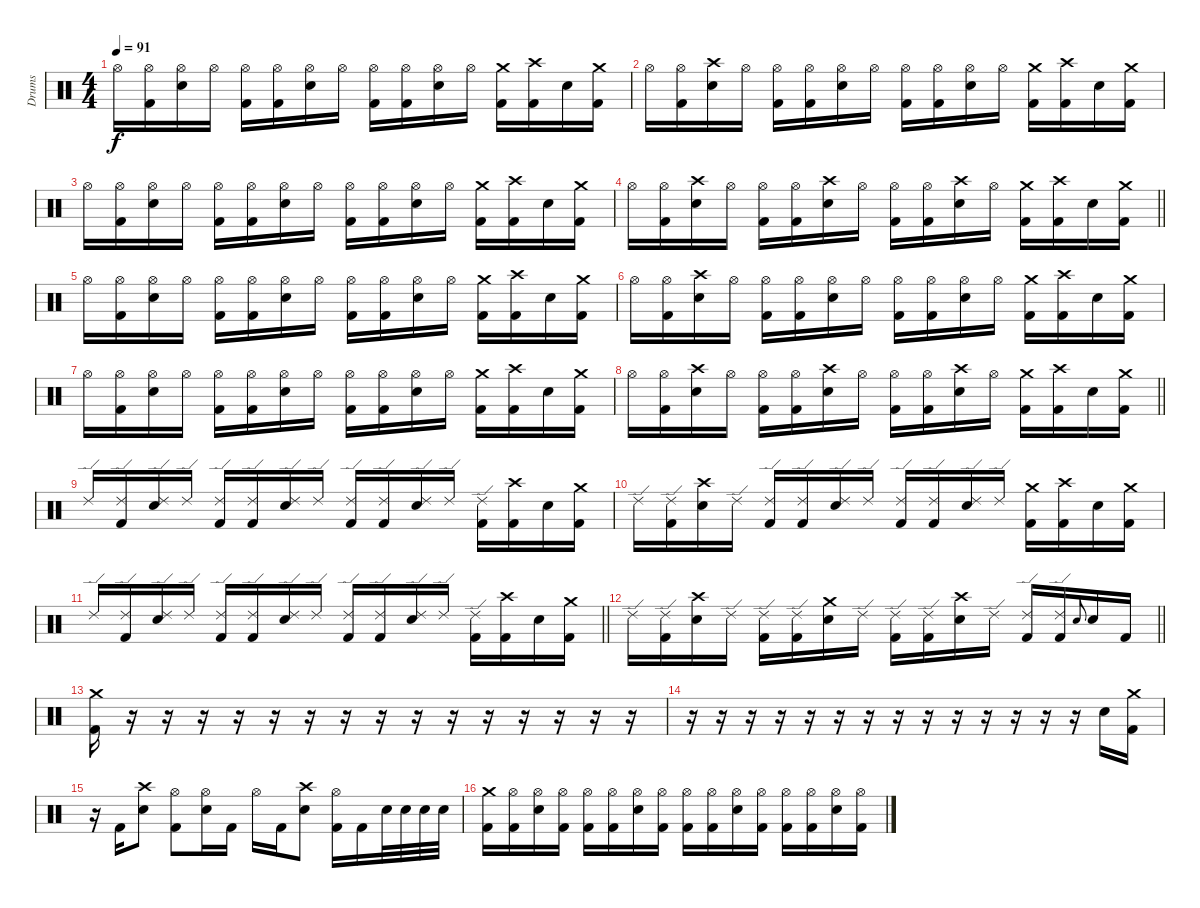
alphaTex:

\track ("Drums" "Drums") {instrument percussion}
\staff {score}
\articulation defaults
\ts (4 4)
\tempo 91
\clef neutral
\ks c "Hi-Hat (open)".16{dy f}
("Hi-Hat (open)" "Kick (hit) 2").16 ("Hi-Hat (open)" "Electric Snare (hit)").16 "Hi-Hat (open)".16 ("Hi-Hat (open)" "Kick (hit) 2").16 ("Hi-Hat (open)" "Kick (hit) 2").16 ("Hi-Hat (open)" "Electric Snare (hit)").16 "Hi-Hat (open)".16 ("Hi-Hat (open)" "Kick (hit) 2").16 ("Hi-Hat (open)" "Kick (hit) 2").16 ("Hi-Hat (open)" "Electric Snare (hit)").16 "Hi-Hat (open)".16 ("Crash medium (hit)" "Kick (hit) 2").16 ("Crash high (hit)" "Kick (hit) 2").16 "Electric Snare (hit)".16 ("Crash medium (hit)" "Kick (hit) 2").16 |
"Hi-Hat (open)".16 ("Hi-Hat (open)" "Kick (hit) 2").16 ("Crash high (hit)" "Electric Snare (hit)").16 "Hi-Hat (open)".16 ("Hi-Hat (open)" "Kick (hit) 2").16 ("Hi-Hat (open)" "Kick (hit) 2").16 ("Hi-Hat (open)" "Electric Snare (hit)").16 "Hi-Hat (open)".16 ("Hi-Hat (open)" "Kick (hit) 2").16 ("Hi-Hat (open)" "Kick (hit) 2").16 ("Hi-Hat (open)" "Electric Snare (hit)").16 "Hi-Hat (open)".16 ("Crash medium (hit)" "Kick (hit) 2").16 ("Crash high (hit)" "Kick (hit) 2").16 "Electric Snare (hit)".16 ("Crash medium (hit)" "Kick (hit) 2").16 |
"Hi-Hat (open)".16 ("Hi-Hat (open)" "Kick (hit) 2").16 ("Hi-Hat (open)" "Electric Snare (hit)").16 "Hi-Hat (open)".16 ("Hi-Hat (open)" "Kick (hit) 2").16 ("Hi-Hat (open)" "Kick (hit) 2").16 ("Hi-Hat (open)" "Electric Snare (hit)").16 "Hi-Hat (open)".16 ("Hi-Hat (open)" "Kick (hit) 2").16 ("Hi-Hat (open)" "Kick (hit) 2").16 ("Hi-Hat (open)" "Electric Snare (hit)").16 "Hi-Hat (open)".16 ("Crash medium (hit)" "Kick (hit) 2").16 ("Crash high (hit)" "Kick (hit) 2").16 "Electric Snare (hit)".16 ("Crash medium (hit)" "Kick (hit) 2").16 |
\barLineRight lightlight "Hi-Hat (open)".16
("Hi-Hat (open)" "Kick (hit) 2").16 ("Crash high (hit)" "Electric Snare (hit)").16 "Hi-Hat (open)".16 ("Hi-Hat (open)" "Kick (hit) 2").16 ("Hi-Hat (open)" "Kick (hit) 2").16 ("Crash high (hit)" "Electric Snare (hit)").16 "Hi-Hat (open)".16 ("Hi-Hat (open)" "Kick (hit) 2").16 ("Hi-Hat (open)" "Kick (hit) 2").16 ("Crash high (hit)" "Electric Snare (hit)").16 "Hi-Hat (open)".16 ("Crash medium (hit)" "Kick (hit) 2").16 ("Crash high (hit)" "Kick (hit) 2").16 "Electric Snare (hit)".16 ("Crash medium (hit)" "Kick (hit) 2").16 |
"Hi-Hat (open)".16 ("Hi-Hat (open)" "Kick (hit) 2").16 ("Hi-Hat (open)" "Electric Snare (hit)").16 "Hi-Hat (open)".16 ("Hi-Hat (open)" "Kick (hit) 2").16 ("Hi-Hat (open)" "Kick (hit) 2").16 ("Hi-Hat (open)" "Electric Snare (hit)").16 "Hi-Hat (open)".16 ("Hi-Hat (open)" "Kick (hit) 2").16 ("Hi-Hat (open)" "Kick (hit) 2").16 ("Hi-Hat (open)" "Electric Snare (hit)").16 "Hi-Hat (open)".16 ("Crash medium (hit)" "Kick (hit) 2").16 ("Crash high (hit)" "Kick (hit) 2").16 "Electric Snare (hit)".16 ("Crash medium (hit)" "Kick (hit) 2").16 |
"Hi-Hat (open)".16 ("Hi-Hat (open)" "Kick (hit) 2").16 ("Crash high (hit)" "Electric Snare (hit)").16 "Hi-Hat (open)".16 ("Hi-Hat (open)" "Kick (hit) 2").16 ("Hi-Hat (open)" "Kick (hit) 2").16 ("Hi-Hat (open)" "Electric Snare (hit)").16 "Hi-Hat (open)".16 ("Hi-Hat (open)" "Kick (hit) 2").16 ("Hi-Hat (open)" "Kick (hit) 2").16 ("Hi-Hat (open)" "Electric Snare (hit)").16 "Hi-Hat (open)".16 ("Crash medium (hit)" "Kick (hit) 2").16 ("Crash high (hit)" "Kick (hit) 2").16 "Electric Snare (hit)".16 ("Crash medium (hit)" "Kick (hit) 2").16 |
"Hi-Hat (open)".16 ("Hi-Hat (open)" "Kick (hit) 2").16 ("Hi-Hat (open)" "Electric Snare (hit)").16 "Hi-Hat (open)".16 ("Hi-Hat (open)" "Kick (hit) 2").16 ("Hi-Hat (open)" "Kick (hit) 2").16 ("Hi-Hat (open)" "Electric Snare (hit)").16 "Hi-Hat (open)".16 ("Hi-Hat (open)" "Kick (hit) 2").16 ("Hi-Hat (open)" "Kick (hit) 2").16 ("Hi-Hat (open)" "Electric Snare (hit)").16 "Hi-Hat (open)".16 ("Crash medium (hit)" "Kick (hit) 2").16 ("Crash high (hit)" "Kick (hit) 2").16 "Electric Snare (hit)".16 ("Crash medium (hit)" "Kick (hit) 2").16 |
\barLineRight lightlight "Hi-Hat (open)".16
("Hi-Hat (open)" "Kick (hit) 2").16 ("Crash high (hit)" "Electric Snare (hit)").16 "Hi-Hat (open)".16 ("Hi-Hat (open)" "Kick (hit) 2").16 ("Hi-Hat (open)" "Kick (hit) 2").16 ("Crash high (hit)" "Electric Snare (hit)").16 "Hi-Hat (open)".16 ("Hi-Hat (open)" "Kick (hit) 2").16 ("Hi-Hat (open)" "Kick (hit) 2").16 ("Crash high (hit)" "Electric Snare (hit)").16 "Hi-Hat (open)".16 ("Crash medium (hit)" "Kick (hit) 2").16 ("Crash high (hit)" "Kick (hit) 2").16 "Electric Snare (hit)".16 ("Crash medium (hit)" "Kick (hit) 2").16 |
"Ride (edge) 2".16 ("Ride (edge) 2" "Kick (hit) 2").16 ("Ride (edge) 2" "Electric Snare (hit)").16 "Ride (edge) 2".16 ("Ride (edge) 2" "Kick (hit) 2").16 ("Ride (edge) 2" "Kick (hit) 2").16 ("Ride (edge) 2" "Electric Snare (hit)").16 "Ride (edge) 2".16 ("Ride (edge) 2" "Kick (hit) 2").16 ("Ride (edge) 2" "Kick (hit) 2").16 ("Ride (edge) 2" "Electric Snare (hit)").16 "Ride (edge) 2".16 ("Ride (edge) 2" "Kick (hit) 2").16 ("Crash high (hit)" "Kick (hit) 2").16 "Electric Snare (hit)".16 ("Crash medium (hit)" "Kick (hit) 2").16 |
"Ride (edge) 2".16 ("Ride (edge) 2" "Kick (hit) 2").16 ("Crash high (hit)" "Electric Snare (hit)").16 "Ride (edge) 2".16 ("Ride (edge) 2" "Kick (hit) 2").16 ("Ride (edge) 2" "Kick (hit) 2").16 ("Ride (edge) 2" "Electric Snare (hit)").16 "Ride (edge) 2".16 ("Ride (edge) 2" "Kick (hit) 2").16 ("Ride (edge) 2" "Kick (hit) 2").16 ("Ride (edge) 2" "Electric Snare (hit)").16 "Ride (edge) 2".16 ("Crash medium (hit)" "Kick (hit) 2").16 ("Crash high (hit)" "Kick (hit) 2").16 "Electric Snare (hit)".16 ("Crash medium (hit)" "Kick (hit) 2").16 |
\barLineRight lightlight "Ride (edge) 2".16
("Ride (edge) 2" "Kick (hit) 2").16 ("Ride (edge) 2" "Electric Snare (hit)").16 "Ride (edge) 2".16 ("Ride (edge) 2" "Kick (hit) 2").16 ("Ride (edge) 2" "Kick (hit) 2").16 ("Ride (edge) 2" "Electric Snare (hit)").16 "Ride (edge) 2".16 ("Ride (edge) 2" "Kick (hit) 2").16 ("Ride (edge) 2" "Kick (hit) 2").16 ("Ride (edge) 2" "Electric Snare (hit)").16 "Ride (edge) 2".16 ("Ride (edge) 2" "Kick (hit) 2").16 ("Crash high (hit)" "Kick (hit) 2").16 "Electric Snare (hit)".16 ("Crash medium (hit)" "Kick (hit) 2").16 |
\barLineRight lightlight "Ride (edge) 2".16
("Ride (edge) 2" "Kick (hit) 2").16 ("Crash high (hit)" "Electric Snare (hit)").16 "Ride (edge) 2".16 ("Ride (edge) 2" "Kick (hit) 2").16 ("Ride (edge) 2" "Kick (hit) 2").16 ("Crash medium (hit)" "Electric Snare (hit)").16 "Ride (edge) 2".16 ("Ride (edge) 2" "Kick (hit) 2").16 ("Ride (edge) 2" "Kick (hit) 2").16 ("Crash high (hit)" "Electric Snare (hit)").16 "Ride (edge) 2".16 ("Ride (edge) 2" "Kick (hit) 2").16 ("Ride (edge) 2" "Kick (hit) 2").16 "Electric Snare (hit)".8{gr onbeat} "Electric Snare (hit)".16 "Kick (hit) 2".16 |
("Crash medium (hit)" "Kick (hit) 2").16 r.16 r.16 r.16 r.16 r.16 r.16 r.16 r.16 r.16 r.16 r.16 r.16 r.16 r.16 r.16 |
r.16 r.16 r.16 r.16 r.16 r.16 r.16 r.16 r.16 r.16 r.16 r.16 r.16 r.16 "Electric Snare (hit)".16 ("Crash medium (hit)" "Kick (hit) 2").16 |
r.16 "Kick (hit) 2".16 ("Crash high (hit)" "Electric Snare (hit)").8 ("Hi-Hat (open)" "Kick (hit) 2").8 ("Hi-Hat (open)" "Electric Snare (hit)").16 "Kick (hit) 2".16 "Hi-Hat (open)".16 "Kick (hit) 2".16 ("Crash high (hit)" "Electric Snare (hit)").8 ("Hi-Hat (open)" "Kick (hit) 2").16 "Kick (hit) 2".16 "Electric Snare (hit)".32 "Electric Snare (hit)".32 "Electric Snare (hit)".32 "Electric Snare (hit)".32 |
("Crash medium (hit)" "Kick (hit) 2").16 ("Hi-Hat (open)" "Kick (hit) 2").16 ("Hi-Hat (open)" "Electric Snare (hit)").16 ("Hi-Hat (open)" "Kick (hit) 2").16 ("Hi-Hat (open)" "Kick (hit) 2").16 ("Hi-Hat (open)" "Kick (hit) 2").16 ("Hi-Hat (open)" "Electric Snare (hit)").16 ("Hi-Hat (open)" "Kick (hit) 2").16 ("Hi-Hat (open)" "Kick (hit) 2").16 ("Hi-Hat (open)" "Kick (hit) 2").16 ("Hi-Hat (open)" "Electric Snare (hit)").16 ("Hi-Hat (open)" "Kick (hit) 2").16 ("Hi-Hat (open)" "Kick (hit) 2").16 ("Hi-Hat (open)" "Kick (hit) 2").16 ("Hi-Hat (open)" "Electric Snare (hit)").16 ("Hi-Hat (open)" "Kick (hit) 2").16
